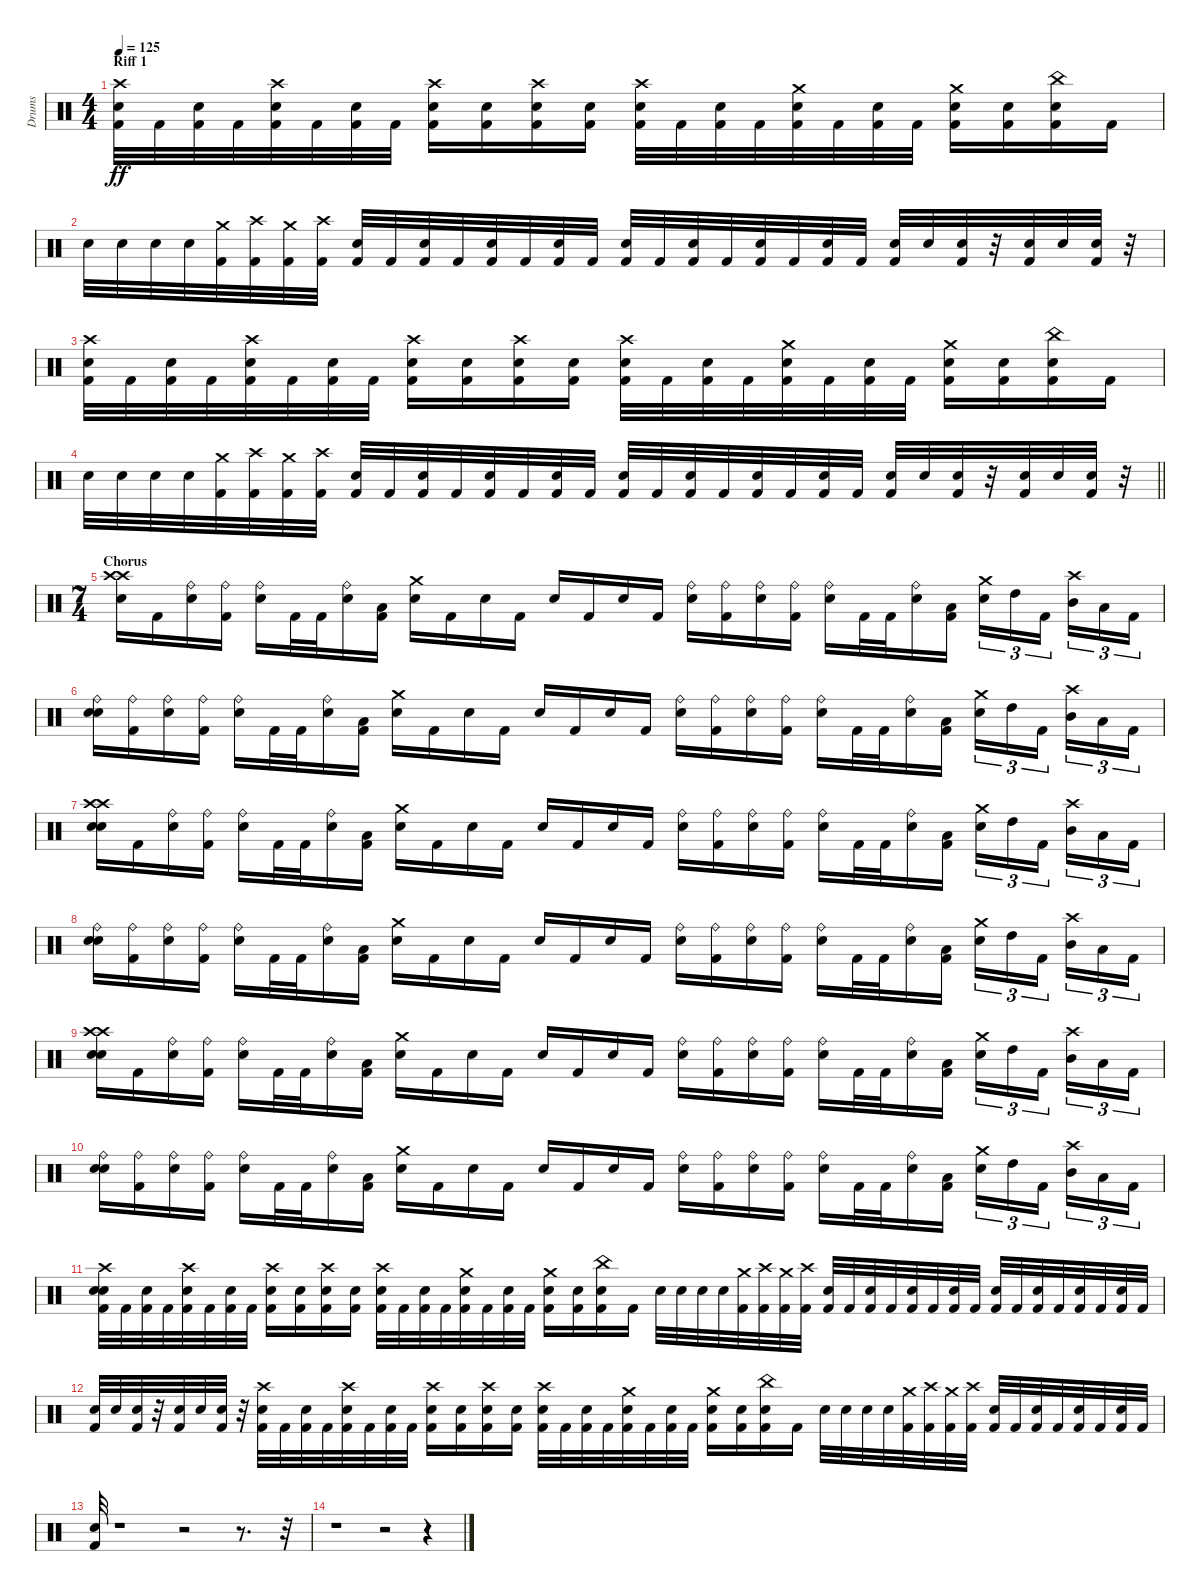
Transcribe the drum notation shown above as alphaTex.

\track ("Drums" "Drums") {instrument percussion}
\staff {score}
\articulation defaults
\ts (4 4)
\section ("" "Riff 1")
\tempo 125
\clef neutral
\ks c
("Crash high (hit)" "Kick (hit) 2" "Snare (hit) 2").32{dy ff} "Kick (hit) 2".32 ("Kick (hit) 2" "Snare (hit) 2").32 "Kick (hit) 2".32 ("Crash high (hit)" "Kick (hit) 2" "Snare (hit) 2").32 "Kick (hit) 2".32 ("Kick (hit) 2" "Snare (hit) 2").32 "Kick (hit) 2".32 ("Crash high (hit)" "Kick (hit) 2" "Snare (hit) 2").16 ("Kick (hit) 2" "Snare (hit) 2").16 ("Crash high (hit)" "Kick (hit) 2" "Snare (hit) 2").16 ("Kick (hit) 2" "Snare (hit) 2").16 ("Crash high (hit)" "Kick (hit) 2" "Snare (hit) 2").32 "Kick (hit) 2".32 ("Kick (hit) 2" "Snare (hit) 2").32 "Kick (hit) 2".32 ("Crash medium (hit)" "Kick (hit) 2" "Snare (hit) 2").32 "Kick (hit) 2".32 ("Kick (hit) 2" "Snare (hit) 2").32 "Kick (hit) 2".32 ("Crash medium (hit)" "Kick (hit) 2" "Snare (hit) 2").16 ("Kick (hit) 2" "Snare (hit) 2").16 ("China (hit)" "Kick (hit) 2" "Snare (hit) 2").16 "Kick (hit) 2".16 |
"Snare (hit) 2".32 "Snare (hit) 2".32 "Snare (hit) 2".32 "Snare (hit) 2".32 ("Crash medium (hit)" "Kick (hit) 2").32 ("Crash high (hit)" "Kick (hit) 2").32 ("Crash medium (hit)" "Kick (hit) 2").32 ("Crash high (hit)" "Kick (hit) 2").32 ("Kick (hit) 2" "Snare (hit) 2").32 "Kick (hit) 2".32 ("Kick (hit) 2" "Snare (hit) 2").32 "Kick (hit) 2".32 ("Kick (hit) 2" "Snare (hit) 2").32 "Kick (hit) 2".32 ("Kick (hit) 2" "Snare (hit) 2").32 "Kick (hit) 2".32 ("Kick (hit) 2" "Snare (hit) 2").32 "Kick (hit) 2".32 ("Kick (hit) 2" "Snare (hit) 2").32 "Kick (hit) 2".32 ("Kick (hit) 2" "Snare (hit) 2").32 "Kick (hit) 2".32 ("Kick (hit) 2" "Snare (hit) 2").32 "Kick (hit) 2".32 ("Kick (hit) 2" "Snare (hit) 2").32 "Snare (hit) 2".32 ("Kick (hit) 2" "Snare (hit) 2").32 r.32 ("Kick (hit) 2" "Snare (hit) 2").32 "Snare (hit) 2".32 ("Kick (hit) 2" "Snare (hit) 2").32 r.32 |
("Crash high (hit)" "Kick (hit) 2" "Snare (hit) 2").32 "Kick (hit) 2".32 ("Kick (hit) 2" "Snare (hit) 2").32 "Kick (hit) 2".32 ("Crash high (hit)" "Kick (hit) 2" "Snare (hit) 2").32 "Kick (hit) 2".32 ("Kick (hit) 2" "Snare (hit) 2").32 "Kick (hit) 2".32 ("Crash high (hit)" "Kick (hit) 2" "Snare (hit) 2").16 ("Kick (hit) 2" "Snare (hit) 2").16 ("Crash high (hit)" "Kick (hit) 2" "Snare (hit) 2").16 ("Kick (hit) 2" "Snare (hit) 2").16 ("Crash high (hit)" "Kick (hit) 2" "Snare (hit) 2").32 "Kick (hit) 2".32 ("Kick (hit) 2" "Snare (hit) 2").32 "Kick (hit) 2".32 ("Crash medium (hit)" "Kick (hit) 2" "Snare (hit) 2").32 "Kick (hit) 2".32 ("Kick (hit) 2" "Snare (hit) 2").32 "Kick (hit) 2".32 ("Crash medium (hit)" "Kick (hit) 2" "Snare (hit) 2").16 ("Kick (hit) 2" "Snare (hit) 2").16 ("China (hit)" "Kick (hit) 2" "Snare (hit) 2").16 "Kick (hit) 2".16 |
\barLineRight lightlight "Snare (hit) 2".32 "Snare (hit) 2".32 "Snare (hit) 2".32 "Snare (hit) 2".32
("Crash medium (hit)" "Kick (hit) 2").32 ("Crash high (hit)" "Kick (hit) 2").32 ("Crash medium (hit)" "Kick (hit) 2").32 ("Crash high (hit)" "Kick (hit) 2").32 ("Kick (hit) 2" "Snare (hit) 2").32 "Kick (hit) 2".32 ("Kick (hit) 2" "Snare (hit) 2").32 "Kick (hit) 2".32 ("Kick (hit) 2" "Snare (hit) 2").32 "Kick (hit) 2".32 ("Kick (hit) 2" "Snare (hit) 2").32 "Kick (hit) 2".32 ("Kick (hit) 2" "Snare (hit) 2").32 "Kick (hit) 2".32 ("Kick (hit) 2" "Snare (hit) 2").32 "Kick (hit) 2".32 ("Kick (hit) 2" "Snare (hit) 2").32 "Kick (hit) 2".32 ("Kick (hit) 2" "Snare (hit) 2").32 "Kick (hit) 2".32 ("Kick (hit) 2" "Snare (hit) 2").32 "Snare (hit) 2".32 ("Kick (hit) 2" "Snare (hit) 2").32 r.32 ("Kick (hit) 2" "Snare (hit) 2").32 "Snare (hit) 2".32 ("Kick (hit) 2" "Snare (hit) 2").32 r.32 |
\ts (7 4)
\section ("" "Chorus")
("Crash high (hit)" "Crash high (hit)" "Snare (hit) 2").16 "Kick (hit) 2".16 ("Snare (hit) 2" "Ride (bell)").16 ("Kick (hit) 2" "Ride (bell)").16 ("Snare (hit) 2" "Ride (bell)").16 "Kick (hit) 2".32 "Kick (hit) 2".32 ("Snare (hit) 2" "Ride (bell)").16 ("Kick (hit) 2" "Low Tom (hit)").16 ("Crash medium (hit)" "Snare (hit) 2").16 "Kick (hit) 2".16 "Snare (hit) 2".16 "Kick (hit) 2".16 "Snare (hit) 2".16 "Kick (hit) 2".16 "Snare (hit) 2".16 "Kick (hit) 2".16 ("Snare (hit) 2" "Ride (bell)").16 ("Kick (hit) 2" "Ride (bell)").16 ("Snare (hit) 2" "Ride (bell)").16 ("Kick (hit) 2" "Ride (bell)").16 ("Snare (hit) 2" "Ride (bell)").16 "Kick (hit) 2".32 "Kick (hit) 2".32 ("Snare (hit) 2" "Ride (bell)").16 ("Kick (hit) 2" "Low Tom (hit)").16 ("Crash medium (hit)" "Snare (hit) 2").16{tu (3 2)} "High Tom (hit)".16{tu (3 2)} "Kick (hit) 2".16{tu (3 2) beam splitsecondary} ("Crash high (hit)" "Mid Tom (hit)").16{tu (3 2)} "Low Tom (hit)".16{tu (3 2)} "Kick (hit) 2".16{tu (3 2)} |
("Snare (hit) 2" "Snare (hit) 2" "Ride (bell)").16 ("Kick (hit) 2" "Ride (bell)").16 ("Snare (hit) 2" "Ride (bell)").16 ("Kick (hit) 2" "Ride (bell)").16 ("Snare (hit) 2" "Ride (bell)").16 "Kick (hit) 2".32 "Kick (hit) 2".32 ("Snare (hit) 2" "Ride (bell)").16 ("Kick (hit) 2" "Low Tom (hit)").16 ("Crash medium (hit)" "Snare (hit) 2").16 "Kick (hit) 2".16 "Snare (hit) 2".16 "Kick (hit) 2".16 "Snare (hit) 2".16 "Kick (hit) 2".16 "Snare (hit) 2".16 "Kick (hit) 2".16 ("Snare (hit) 2" "Ride (bell)").16 ("Kick (hit) 2" "Ride (bell)").16 ("Snare (hit) 2" "Ride (bell)").16 ("Kick (hit) 2" "Ride (bell)").16 ("Snare (hit) 2" "Ride (bell)").16 "Kick (hit) 2".32 "Kick (hit) 2".32 ("Snare (hit) 2" "Ride (bell)").16 ("Kick (hit) 2" "Low Tom (hit)").16 ("Crash medium (hit)" "Snare (hit) 2").16{tu (3 2)} "High Tom (hit)".16{tu (3 2)} "Kick (hit) 2".16{tu (3 2) beam splitsecondary} ("Crash high (hit)" "Mid Tom (hit)").16{tu (3 2)} "Low Tom (hit)".16{tu (3 2)} "Kick (hit) 2".16{tu (3 2)} |
("Snare (hit) 2" "Crash high (hit)" "Crash high (hit)" "Snare (hit) 2").16 "Kick (hit) 2".16 ("Snare (hit) 2" "Ride (bell)").16 ("Kick (hit) 2" "Ride (bell)").16 ("Snare (hit) 2" "Ride (bell)").16 "Kick (hit) 2".32 "Kick (hit) 2".32 ("Snare (hit) 2" "Ride (bell)").16 ("Kick (hit) 2" "Low Tom (hit)").16 ("Crash medium (hit)" "Snare (hit) 2").16 "Kick (hit) 2".16 "Snare (hit) 2".16 "Kick (hit) 2".16 "Snare (hit) 2".16 "Kick (hit) 2".16 "Snare (hit) 2".16 "Kick (hit) 2".16 ("Snare (hit) 2" "Ride (bell)").16 ("Kick (hit) 2" "Ride (bell)").16 ("Snare (hit) 2" "Ride (bell)").16 ("Kick (hit) 2" "Ride (bell)").16 ("Snare (hit) 2" "Ride (bell)").16 "Kick (hit) 2".32 "Kick (hit) 2".32 ("Snare (hit) 2" "Ride (bell)").16 ("Kick (hit) 2" "Low Tom (hit)").16 ("Crash medium (hit)" "Snare (hit) 2").16{tu (3 2)} "High Tom (hit)".16{tu (3 2)} "Kick (hit) 2".16{tu (3 2) beam splitsecondary} ("Crash high (hit)" "Mid Tom (hit)").16{tu (3 2)} "Low Tom (hit)".16{tu (3 2)} "Kick (hit) 2".16{tu (3 2)} |
("Snare (hit) 2" "Snare (hit) 2" "Ride (bell)").16 ("Kick (hit) 2" "Ride (bell)").16 ("Snare (hit) 2" "Ride (bell)").16 ("Kick (hit) 2" "Ride (bell)").16 ("Snare (hit) 2" "Ride (bell)").16 "Kick (hit) 2".32 "Kick (hit) 2".32 ("Snare (hit) 2" "Ride (bell)").16 ("Kick (hit) 2" "Low Tom (hit)").16 ("Crash medium (hit)" "Snare (hit) 2").16 "Kick (hit) 2".16 "Snare (hit) 2".16 "Kick (hit) 2".16 "Snare (hit) 2".16 "Kick (hit) 2".16 "Snare (hit) 2".16 "Kick (hit) 2".16 ("Snare (hit) 2" "Ride (bell)").16 ("Kick (hit) 2" "Ride (bell)").16 ("Snare (hit) 2" "Ride (bell)").16 ("Kick (hit) 2" "Ride (bell)").16 ("Snare (hit) 2" "Ride (bell)").16 "Kick (hit) 2".32 "Kick (hit) 2".32 ("Snare (hit) 2" "Ride (bell)").16 ("Kick (hit) 2" "Low Tom (hit)").16 ("Crash medium (hit)" "Snare (hit) 2").16{tu (3 2)} "High Tom (hit)".16{tu (3 2)} "Kick (hit) 2".16{tu (3 2) beam splitsecondary} ("Crash high (hit)" "Mid Tom (hit)").16{tu (3 2)} "Low Tom (hit)".16{tu (3 2)} "Kick (hit) 2".16{tu (3 2)} |
("Snare (hit) 2" "Crash high (hit)" "Crash high (hit)" "Snare (hit) 2").16 "Kick (hit) 2".16 ("Snare (hit) 2" "Ride (bell)").16 ("Kick (hit) 2" "Ride (bell)").16 ("Snare (hit) 2" "Ride (bell)").16 "Kick (hit) 2".32 "Kick (hit) 2".32 ("Snare (hit) 2" "Ride (bell)").16 ("Kick (hit) 2" "Low Tom (hit)").16 ("Crash medium (hit)" "Snare (hit) 2").16 "Kick (hit) 2".16 "Snare (hit) 2".16 "Kick (hit) 2".16 "Snare (hit) 2".16 "Kick (hit) 2".16 "Snare (hit) 2".16 "Kick (hit) 2".16 ("Snare (hit) 2" "Ride (bell)").16 ("Kick (hit) 2" "Ride (bell)").16 ("Snare (hit) 2" "Ride (bell)").16 ("Kick (hit) 2" "Ride (bell)").16 ("Snare (hit) 2" "Ride (bell)").16 "Kick (hit) 2".32 "Kick (hit) 2".32 ("Snare (hit) 2" "Ride (bell)").16 ("Kick (hit) 2" "Low Tom (hit)").16 ("Crash medium (hit)" "Snare (hit) 2").16{tu (3 2)} "High Tom (hit)".16{tu (3 2)} "Kick (hit) 2".16{tu (3 2) beam splitsecondary} ("Crash high (hit)" "Mid Tom (hit)").16{tu (3 2)} "Low Tom (hit)".16{tu (3 2)} "Kick (hit) 2".16{tu (3 2)} |
("Snare (hit) 2" "Snare (hit) 2" "Ride (bell)").16 ("Kick (hit) 2" "Ride (bell)").16 ("Snare (hit) 2" "Ride (bell)").16 ("Kick (hit) 2" "Ride (bell)").16 ("Snare (hit) 2" "Ride (bell)").16 "Kick (hit) 2".32 "Kick (hit) 2".32 ("Snare (hit) 2" "Ride (bell)").16 ("Kick (hit) 2" "Low Tom (hit)").16 ("Crash medium (hit)" "Snare (hit) 2").16 "Kick (hit) 2".16 "Snare (hit) 2".16 "Kick (hit) 2".16 "Snare (hit) 2".16 "Kick (hit) 2".16 "Snare (hit) 2".16 "Kick (hit) 2".16 ("Snare (hit) 2" "Ride (bell)").16 ("Kick (hit) 2" "Ride (bell)").16 ("Snare (hit) 2" "Ride (bell)").16 ("Kick (hit) 2" "Ride (bell)").16 ("Snare (hit) 2" "Ride (bell)").16 "Kick (hit) 2".32 "Kick (hit) 2".32 ("Snare (hit) 2" "Ride (bell)").16 ("Kick (hit) 2" "Low Tom (hit)").16 ("Crash medium (hit)" "Snare (hit) 2").16{tu (3 2)} "High Tom (hit)".16{tu (3 2)} "Kick (hit) 2".16{tu (3 2) beam splitsecondary} ("Crash high (hit)" "Mid Tom (hit)").16{tu (3 2)} "Low Tom (hit)".16{tu (3 2)} "Kick (hit) 2".16{tu (3 2)} |
("Snare (hit) 2" "Crash high (hit)" "Kick (hit) 2" "Snare (hit) 2").32 "Kick (hit) 2".32 ("Kick (hit) 2" "Snare (hit) 2").32 "Kick (hit) 2".32 ("Crash high (hit)" "Kick (hit) 2" "Snare (hit) 2").32 "Kick (hit) 2".32 ("Kick (hit) 2" "Snare (hit) 2").32 "Kick (hit) 2".32 ("Crash high (hit)" "Kick (hit) 2" "Snare (hit) 2").16 ("Kick (hit) 2" "Snare (hit) 2").16 ("Crash high (hit)" "Kick (hit) 2" "Snare (hit) 2").16 ("Kick (hit) 2" "Snare (hit) 2").16 ("Crash high (hit)" "Kick (hit) 2" "Snare (hit) 2").32 "Kick (hit) 2".32 ("Kick (hit) 2" "Snare (hit) 2").32 "Kick (hit) 2".32 ("Crash medium (hit)" "Kick (hit) 2" "Snare (hit) 2").32 "Kick (hit) 2".32 ("Kick (hit) 2" "Snare (hit) 2").32 "Kick (hit) 2".32 ("Crash medium (hit)" "Kick (hit) 2" "Snare (hit) 2").16 ("Kick (hit) 2" "Snare (hit) 2").16 ("China (hit)" "Kick (hit) 2" "Snare (hit) 2").16 "Kick (hit) 2".16 "Snare (hit) 2".32 "Snare (hit) 2".32 "Snare (hit) 2".32 "Snare (hit) 2".32 ("Crash medium (hit)" "Kick (hit) 2").32 ("Crash high (hit)" "Kick (hit) 2").32 ("Crash medium (hit)" "Kick (hit) 2").32 ("Crash high (hit)" "Kick (hit) 2").32 ("Kick (hit) 2" "Snare (hit) 2").32 "Kick (hit) 2".32 ("Kick (hit) 2" "Snare (hit) 2").32 "Kick (hit) 2".32 ("Kick (hit) 2" "Snare (hit) 2").32 "Kick (hit) 2".32 ("Kick (hit) 2" "Snare (hit) 2").32 "Kick (hit) 2".32 ("Kick (hit) 2" "Snare (hit) 2").32 "Kick (hit) 2".32 ("Kick (hit) 2" "Snare (hit) 2").32 "Kick (hit) 2".32 ("Kick (hit) 2" "Snare (hit) 2").32 "Kick (hit) 2".32 ("Kick (hit) 2" "Snare (hit) 2").32 "Kick (hit) 2".32 |
("Kick (hit) 2" "Snare (hit) 2").32 "Snare (hit) 2".32 ("Kick (hit) 2" "Snare (hit) 2").32 r.32 ("Kick (hit) 2" "Snare (hit) 2").32 "Snare (hit) 2".32 ("Kick (hit) 2" "Snare (hit) 2").32 r.32 ("Crash high (hit)" "Kick (hit) 2" "Snare (hit) 2").32 "Kick (hit) 2".32 ("Kick (hit) 2" "Snare (hit) 2").32 "Kick (hit) 2".32 ("Crash high (hit)" "Kick (hit) 2" "Snare (hit) 2").32 "Kick (hit) 2".32 ("Kick (hit) 2" "Snare (hit) 2").32 "Kick (hit) 2".32 ("Crash high (hit)" "Kick (hit) 2" "Snare (hit) 2").16 ("Kick (hit) 2" "Snare (hit) 2").16 ("Crash high (hit)" "Kick (hit) 2" "Snare (hit) 2").16 ("Kick (hit) 2" "Snare (hit) 2").16 ("Crash high (hit)" "Kick (hit) 2" "Snare (hit) 2").32 "Kick (hit) 2".32 ("Kick (hit) 2" "Snare (hit) 2").32 "Kick (hit) 2".32 ("Crash medium (hit)" "Kick (hit) 2" "Snare (hit) 2").32 "Kick (hit) 2".32 ("Kick (hit) 2" "Snare (hit) 2").32 "Kick (hit) 2".32 ("Crash medium (hit)" "Kick (hit) 2" "Snare (hit) 2").16 ("Kick (hit) 2" "Snare (hit) 2").16 ("China (hit)" "Kick (hit) 2" "Snare (hit) 2").16 "Kick (hit) 2".16 "Snare (hit) 2".32 "Snare (hit) 2".32 "Snare (hit) 2".32 "Snare (hit) 2".32 ("Crash medium (hit)" "Kick (hit) 2").32 ("Crash high (hit)" "Kick (hit) 2").32 ("Crash medium (hit)" "Kick (hit) 2").32 ("Crash high (hit)" "Kick (hit) 2").32 ("Kick (hit) 2" "Snare (hit) 2").32 "Kick (hit) 2".32 ("Kick (hit) 2" "Snare (hit) 2").32 "Kick (hit) 2".32 ("Kick (hit) 2" "Snare (hit) 2").32 "Kick (hit) 2".32 ("Kick (hit) 2" "Snare (hit) 2").32 "Kick (hit) 2".32 |
("Kick (hit) 2" "Snare (hit) 2").32 r.1 r.2 r.8{d} r.32 |
r.1 r.2 r.4
